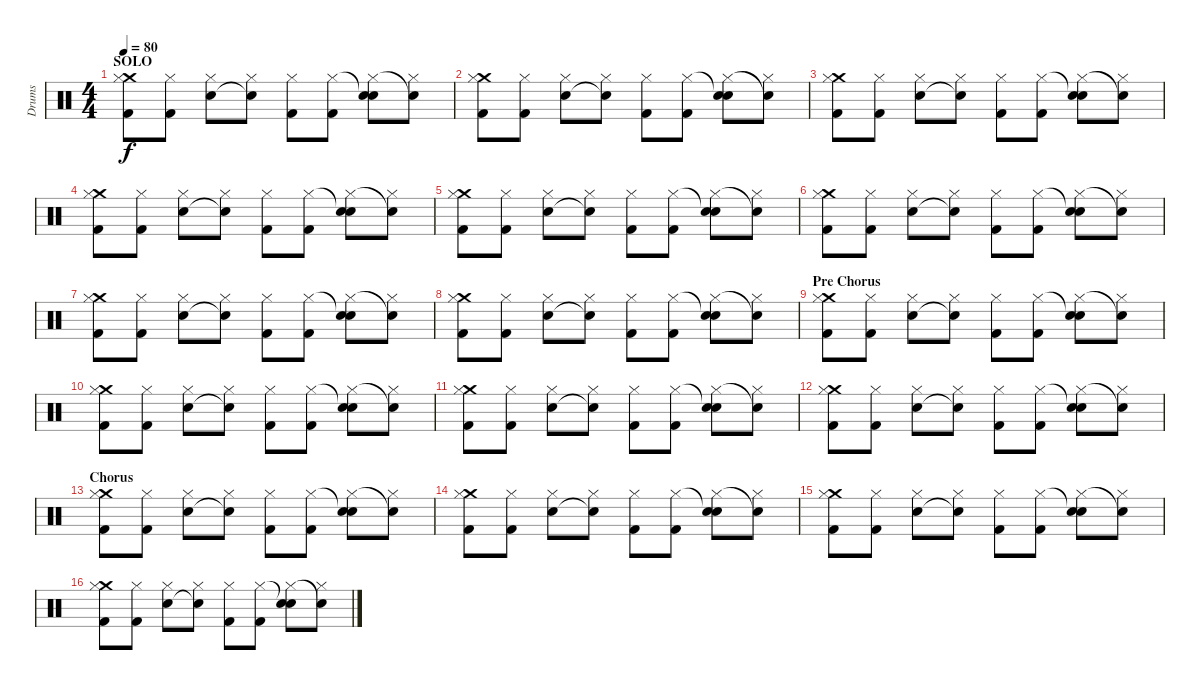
\track ("Drums" "Drums") {instrument percussion}
\staff {score}
\articulation defaults
\ts (4 4)
\section ("" "SOLO")
\tempo 80
\clef neutral
\ks c
("Crash medium (hit)" "Hi-Hat (closed)" "Kick (hit) 2").8{dy f} ("Hi-Hat (closed)" "Kick (hit) 2").8 ("Hi-Hat (closed)" "Electric Snare (hit)").8 ("Hi-Hat (closed)" "Snare (hit)"{t}).8 ("Hi-Hat (closed)" "Kick (hit) 2").8 ("Hi-Hat (closed)" "Kick (hit) 2").8 ("Snare (hit)"{t} "Hi-Hat (closed)" "Electric Snare (hit)").8 ("Hi-Hat (closed)" "Snare (hit)"{t}).8 |
("Crash medium (hit)" "Hi-Hat (closed)" "Kick (hit) 2").8 ("Hi-Hat (closed)" "Kick (hit) 2").8 ("Hi-Hat (closed)" "Electric Snare (hit)").8 ("Hi-Hat (closed)" "Snare (hit)"{t}).8 ("Hi-Hat (closed)" "Kick (hit) 2").8 ("Hi-Hat (closed)" "Kick (hit) 2").8 ("Snare (hit)"{t} "Hi-Hat (closed)" "Electric Snare (hit)").8 ("Hi-Hat (closed)" "Snare (hit)"{t}).8 |
("Crash medium (hit)" "Hi-Hat (closed)" "Kick (hit) 2").8 ("Hi-Hat (closed)" "Kick (hit) 2").8 ("Hi-Hat (closed)" "Electric Snare (hit)").8 ("Hi-Hat (closed)" "Snare (hit)"{t}).8 ("Hi-Hat (closed)" "Kick (hit) 2").8 ("Hi-Hat (closed)" "Kick (hit) 2").8 ("Snare (hit)"{t} "Hi-Hat (closed)" "Electric Snare (hit)").8 ("Hi-Hat (closed)" "Snare (hit)"{t}).8 |
("Crash medium (hit)" "Hi-Hat (closed)" "Kick (hit) 2").8 ("Hi-Hat (closed)" "Kick (hit) 2").8 ("Hi-Hat (closed)" "Electric Snare (hit)").8 ("Hi-Hat (closed)" "Snare (hit)"{t}).8 ("Hi-Hat (closed)" "Kick (hit) 2").8 ("Hi-Hat (closed)" "Kick (hit) 2").8 ("Snare (hit)"{t} "Hi-Hat (closed)" "Electric Snare (hit)").8 ("Hi-Hat (closed)" "Snare (hit)"{t}).8 |
("Crash medium (hit)" "Hi-Hat (closed)" "Kick (hit) 2").8 ("Hi-Hat (closed)" "Kick (hit) 2").8 ("Hi-Hat (closed)" "Electric Snare (hit)").8 ("Hi-Hat (closed)" "Snare (hit)"{t}).8 ("Hi-Hat (closed)" "Kick (hit) 2").8 ("Hi-Hat (closed)" "Kick (hit) 2").8 ("Snare (hit)"{t} "Hi-Hat (closed)" "Electric Snare (hit)").8 ("Hi-Hat (closed)" "Snare (hit)"{t}).8 |
("Crash medium (hit)" "Hi-Hat (closed)" "Kick (hit) 2").8 ("Hi-Hat (closed)" "Kick (hit) 2").8 ("Hi-Hat (closed)" "Electric Snare (hit)").8 ("Hi-Hat (closed)" "Snare (hit)"{t}).8 ("Hi-Hat (closed)" "Kick (hit) 2").8 ("Hi-Hat (closed)" "Kick (hit) 2").8 ("Snare (hit)"{t} "Hi-Hat (closed)" "Electric Snare (hit)").8 ("Hi-Hat (closed)" "Snare (hit)"{t}).8 |
("Crash medium (hit)" "Hi-Hat (closed)" "Kick (hit) 2").8 ("Hi-Hat (closed)" "Kick (hit) 2").8 ("Hi-Hat (closed)" "Electric Snare (hit)").8 ("Hi-Hat (closed)" "Snare (hit)"{t}).8 ("Hi-Hat (closed)" "Kick (hit) 2").8 ("Hi-Hat (closed)" "Kick (hit) 2").8 ("Snare (hit)"{t} "Hi-Hat (closed)" "Electric Snare (hit)").8 ("Hi-Hat (closed)" "Snare (hit)"{t}).8 |
("Crash medium (hit)" "Hi-Hat (closed)" "Kick (hit) 2").8 ("Hi-Hat (closed)" "Kick (hit) 2").8 ("Hi-Hat (closed)" "Electric Snare (hit)").8 ("Hi-Hat (closed)" "Snare (hit)"{t}).8 ("Hi-Hat (closed)" "Kick (hit) 2").8 ("Hi-Hat (closed)" "Kick (hit) 2").8 ("Snare (hit)"{t} "Hi-Hat (closed)" "Electric Snare (hit)").8 ("Hi-Hat (closed)" "Snare (hit)"{t}).8 |
\section ("" "Pre Chorus")
("Crash medium (hit)" "Hi-Hat (closed)" "Kick (hit) 2").8 ("Hi-Hat (closed)" "Kick (hit) 2").8 ("Hi-Hat (closed)" "Electric Snare (hit)").8 ("Hi-Hat (closed)" "Snare (hit)"{t}).8 ("Hi-Hat (closed)" "Kick (hit) 2").8 ("Hi-Hat (closed)" "Kick (hit) 2").8 ("Snare (hit)"{t} "Hi-Hat (closed)" "Electric Snare (hit)").8 ("Hi-Hat (closed)" "Snare (hit)"{t}).8 |
("Crash medium (hit)" "Hi-Hat (closed)" "Kick (hit) 2").8 ("Hi-Hat (closed)" "Kick (hit) 2").8 ("Hi-Hat (closed)" "Electric Snare (hit)").8 ("Hi-Hat (closed)" "Snare (hit)"{t}).8 ("Hi-Hat (closed)" "Kick (hit) 2").8 ("Hi-Hat (closed)" "Kick (hit) 2").8 ("Snare (hit)"{t} "Hi-Hat (closed)" "Electric Snare (hit)").8 ("Hi-Hat (closed)" "Snare (hit)"{t}).8 |
("Crash medium (hit)" "Hi-Hat (closed)" "Kick (hit) 2").8 ("Hi-Hat (closed)" "Kick (hit) 2").8 ("Hi-Hat (closed)" "Electric Snare (hit)").8 ("Hi-Hat (closed)" "Snare (hit)"{t}).8 ("Hi-Hat (closed)" "Kick (hit) 2").8 ("Hi-Hat (closed)" "Kick (hit) 2").8 ("Snare (hit)"{t} "Hi-Hat (closed)" "Electric Snare (hit)").8 ("Hi-Hat (closed)" "Snare (hit)"{t}).8 |
("Crash medium (hit)" "Hi-Hat (closed)" "Kick (hit) 2").8 ("Hi-Hat (closed)" "Kick (hit) 2").8 ("Hi-Hat (closed)" "Electric Snare (hit)").8 ("Hi-Hat (closed)" "Snare (hit)"{t}).8 ("Hi-Hat (closed)" "Kick (hit) 2").8 ("Hi-Hat (closed)" "Kick (hit) 2").8 ("Snare (hit)"{t} "Hi-Hat (closed)" "Electric Snare (hit)").8 ("Hi-Hat (closed)" "Snare (hit)"{t}).8 |
\section ("" "Chorus")
("Crash medium (hit)" "Hi-Hat (closed)" "Kick (hit) 2").8 ("Hi-Hat (closed)" "Kick (hit) 2").8 ("Hi-Hat (closed)" "Electric Snare (hit)").8 ("Hi-Hat (closed)" "Snare (hit)"{t}).8 ("Hi-Hat (closed)" "Kick (hit) 2").8 ("Hi-Hat (closed)" "Kick (hit) 2").8 ("Snare (hit)"{t} "Hi-Hat (closed)" "Electric Snare (hit)").8 ("Hi-Hat (closed)" "Snare (hit)"{t}).8 |
("Crash medium (hit)" "Hi-Hat (closed)" "Kick (hit) 2").8 ("Hi-Hat (closed)" "Kick (hit) 2").8 ("Hi-Hat (closed)" "Electric Snare (hit)").8 ("Hi-Hat (closed)" "Snare (hit)"{t}).8 ("Hi-Hat (closed)" "Kick (hit) 2").8 ("Hi-Hat (closed)" "Kick (hit) 2").8 ("Snare (hit)"{t} "Hi-Hat (closed)" "Electric Snare (hit)").8 ("Hi-Hat (closed)" "Snare (hit)"{t}).8 |
("Crash medium (hit)" "Hi-Hat (closed)" "Kick (hit) 2").8 ("Hi-Hat (closed)" "Kick (hit) 2").8 ("Hi-Hat (closed)" "Electric Snare (hit)").8 ("Hi-Hat (closed)" "Snare (hit)"{t}).8 ("Hi-Hat (closed)" "Kick (hit) 2").8 ("Hi-Hat (closed)" "Kick (hit) 2").8 ("Snare (hit)"{t} "Hi-Hat (closed)" "Electric Snare (hit)").8 ("Hi-Hat (closed)" "Snare (hit)"{t}).8 |
("Crash medium (hit)" "Hi-Hat (closed)" "Kick (hit) 2").8 ("Hi-Hat (closed)" "Kick (hit) 2").8 ("Hi-Hat (closed)" "Electric Snare (hit)").8 ("Hi-Hat (closed)" "Snare (hit)"{t}).8 ("Hi-Hat (closed)" "Kick (hit) 2").8 ("Hi-Hat (closed)" "Kick (hit) 2").8 ("Snare (hit)"{t} "Hi-Hat (closed)" "Electric Snare (hit)").8 ("Hi-Hat (closed)" "Snare (hit)"{t}).8
